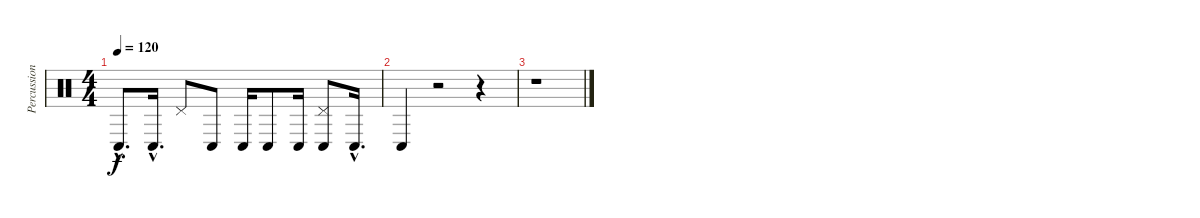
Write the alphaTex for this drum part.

\track ("Percussion" "Percussion") {instrument percussion}
\staff {score}
\articulation defaults
\ts (4 4)
\tempo 120
\clef neutral
\ks c "Conga low (hit)"{hac}.8{d dy f} "Conga low (hit)"{hac}.16{d} "Pedal Hi-Hat (hit)".8 "Conga low (hit)".8 "Conga low (hit)".16 "Conga low (hit)".8 "Conga low (hit)".16
("Pedal Hi-Hat (hit)" "Conga low (hit)").8 "Conga low (hit)"{hac}.16{d} |
"Conga low (hit)".4 r.2 r.4 |
r.1
